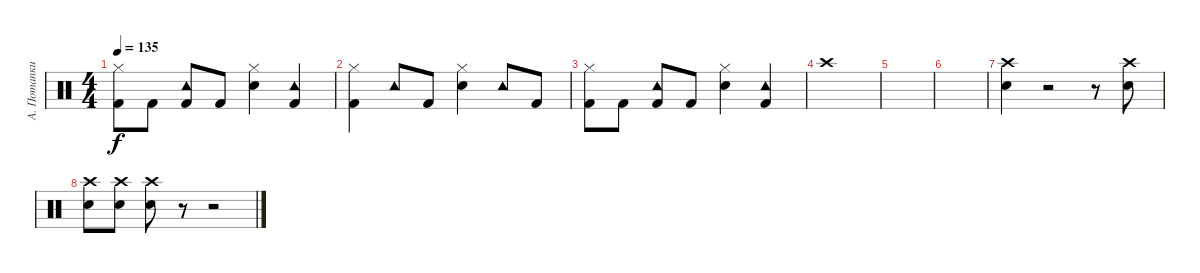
\track ("А. Потапкин" "А. Потапки") {instrument percussion}
\staff {score}
\articulation defaults
\ts (4 4)
\tempo 135
\clef neutral
\ks c
("Hi-Hat (closed)" "Kick (hit) 2").8{dy f} "Kick (hit) 2".8 ("Tambourine (hit)" "Kick (hit) 2").8 "Kick (hit) 2".8 ("Hi-Hat (closed)" "Snare (hit) 2").4 ("Tambourine (hit)" "Kick (hit) 2").4 |
("Hi-Hat (closed)" "Kick (hit) 2").4 "Tambourine (hit)".8 "Kick (hit) 2".8 ("Hi-Hat (closed)" "Snare (hit) 2").4 "Tambourine (hit)".8 "Kick (hit) 2".8 |
("Hi-Hat (closed)" "Kick (hit) 2").8 "Kick (hit) 2".8 ("Tambourine (hit)" "Kick (hit) 2").8 "Kick (hit) 2".8 ("Hi-Hat (closed)" "Snare (hit) 2").4 ("Tambourine (hit)" "Kick (hit) 2").4 |
"Crash high (hit)".1 |
|
|
("Crash high (hit)" "Snare (hit) 2").4 r.2 r.8 ("Crash high (hit)" "Snare (hit) 2").8 |
("Crash high (hit)" "Snare (hit) 2").8 ("Crash high (hit)" "Snare (hit) 2").8 ("Crash high (hit)" "Snare (hit) 2").8 r.8 r.2
